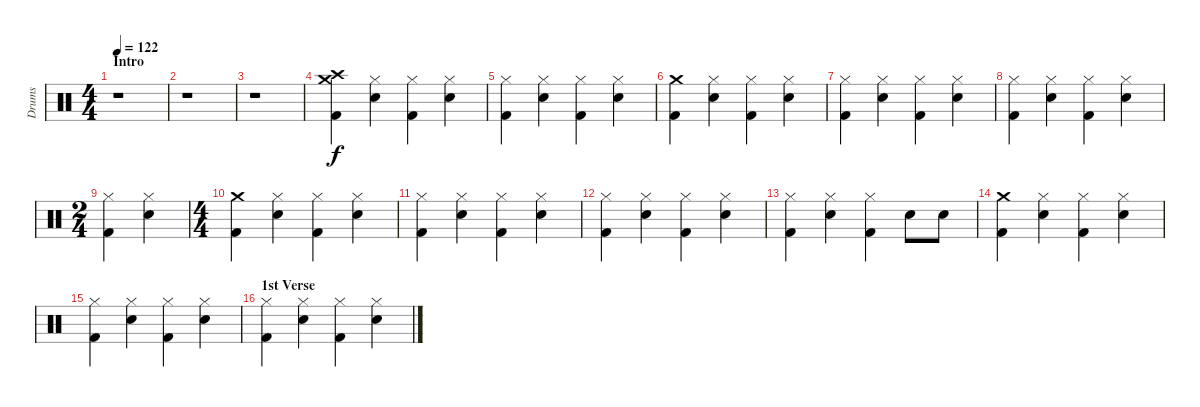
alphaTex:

\track ("Drums" "Drums") {instrument percussion}
\staff {score}
\articulation defaults
\ts (4 4)
\section ("" "Intro")
\tempo 122
\clef neutral
\ks aminor
r.1{dy f} |
r.1 |
r.1 |
("Crash high (hit)" "Crash medium (hit)" "Kick (hit) 2").4 ("Hi-Hat (closed)" "Snare (hit) 2").4 ("Hi-Hat (closed)" "Kick (hit) 2").4 ("Hi-Hat (closed)" "Snare (hit) 2").4 |
("Hi-Hat (closed)" "Kick (hit) 2").4 ("Hi-Hat (closed)" "Snare (hit) 2").4 ("Hi-Hat (closed)" "Kick (hit) 2").4 ("Hi-Hat (closed)" "Snare (hit) 2").4 |
("Crash medium (hit)" "Kick (hit) 2").4 ("Hi-Hat (closed)" "Snare (hit) 2").4 ("Hi-Hat (closed)" "Kick (hit) 2").4 ("Hi-Hat (closed)" "Snare (hit) 2").4 |
("Hi-Hat (closed)" "Kick (hit) 2").4 ("Hi-Hat (closed)" "Snare (hit) 2").4 ("Hi-Hat (closed)" "Kick (hit) 2").4 ("Hi-Hat (closed)" "Snare (hit) 2").4 |
("Hi-Hat (closed)" "Kick (hit) 2").4 ("Hi-Hat (closed)" "Snare (hit) 2").4 ("Hi-Hat (closed)" "Kick (hit) 2").4 ("Hi-Hat (closed)" "Snare (hit) 2").4 |
\ts (2 4)
("Hi-Hat (closed)" "Kick (hit) 2").4 ("Hi-Hat (closed)" "Snare (hit) 2").4 |
\ts (4 4)
("Crash medium (hit)" "Kick (hit) 2").4 ("Hi-Hat (closed)" "Snare (hit) 2").4 ("Hi-Hat (closed)" "Kick (hit) 2").4 ("Hi-Hat (closed)" "Snare (hit) 2").4 |
("Hi-Hat (closed)" "Kick (hit) 2").4 ("Hi-Hat (closed)" "Snare (hit) 2").4 ("Hi-Hat (closed)" "Kick (hit) 2").4 ("Hi-Hat (closed)" "Snare (hit) 2").4 |
("Hi-Hat (closed)" "Kick (hit) 2").4 ("Hi-Hat (closed)" "Snare (hit) 2").4 ("Hi-Hat (closed)" "Kick (hit) 2").4 ("Hi-Hat (closed)" "Snare (hit) 2").4 |
("Hi-Hat (closed)" "Kick (hit) 2").4 ("Hi-Hat (closed)" "Snare (hit) 2").4 ("Hi-Hat (closed)" "Kick (hit) 2").4 "Electric Snare (hit)".8 "Electric Snare (hit)".8 |
("Crash medium (hit)" "Kick (hit) 2").4 ("Hi-Hat (closed)" "Snare (hit) 2").4 ("Hi-Hat (closed)" "Kick (hit) 2").4 ("Hi-Hat (closed)" "Snare (hit) 2").4 |
("Hi-Hat (closed)" "Kick (hit) 2").4 ("Hi-Hat (closed)" "Snare (hit) 2").4 ("Hi-Hat (closed)" "Kick (hit) 2").4 ("Hi-Hat (closed)" "Snare (hit) 2").4 |
\section ("" "1st Verse")
("Hi-Hat (closed)" "Kick (hit) 2").4 ("Hi-Hat (closed)" "Snare (hit) 2").4 ("Hi-Hat (closed)" "Kick (hit) 2").4 ("Hi-Hat (closed)" "Snare (hit) 2").4
